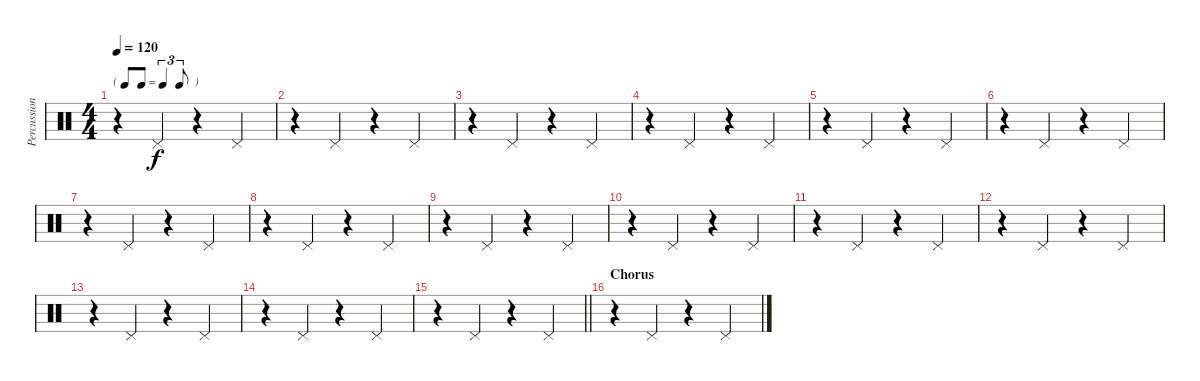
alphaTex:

\track ("Percussion" "Percussion") {instrument percussion}
\staff {score}
\articulation defaults
\ts (4 4)
\tf triplet8th
\tempo 120
\clef neutral
\ks c
r.4{dy f} "Pedal Hi-Hat (hit)".4 r.4 "Pedal Hi-Hat (hit)".4 |
r.4 "Pedal Hi-Hat (hit)".4 r.4 "Pedal Hi-Hat (hit)".4 |
r.4 "Pedal Hi-Hat (hit)".4 r.4 "Pedal Hi-Hat (hit)".4 |
r.4 "Pedal Hi-Hat (hit)".4 r.4 "Pedal Hi-Hat (hit)".4 |
r.4 "Pedal Hi-Hat (hit)".4 r.4 "Pedal Hi-Hat (hit)".4 |
r.4 "Pedal Hi-Hat (hit)".4 r.4 "Pedal Hi-Hat (hit)".4 |
r.4 "Pedal Hi-Hat (hit)".4 r.4 "Pedal Hi-Hat (hit)".4 |
r.4 "Pedal Hi-Hat (hit)".4 r.4 "Pedal Hi-Hat (hit)".4 |
r.4 "Pedal Hi-Hat (hit)".4 r.4 "Pedal Hi-Hat (hit)".4 |
r.4 "Pedal Hi-Hat (hit)".4 r.4 "Pedal Hi-Hat (hit)".4 |
r.4 "Pedal Hi-Hat (hit)".4 r.4 "Pedal Hi-Hat (hit)".4 |
r.4 "Pedal Hi-Hat (hit)".4 r.4 "Pedal Hi-Hat (hit)".4 |
r.4 "Pedal Hi-Hat (hit)".4 r.4 "Pedal Hi-Hat (hit)".4 |
r.4 "Pedal Hi-Hat (hit)".4 r.4 "Pedal Hi-Hat (hit)".4 |
\barLineRight lightlight
r.4 "Pedal Hi-Hat (hit)".4 r.4 "Pedal Hi-Hat (hit)".4 |
\section ("" "Chorus")
r.4 "Pedal Hi-Hat (hit)".4 r.4 "Pedal Hi-Hat (hit)".4
